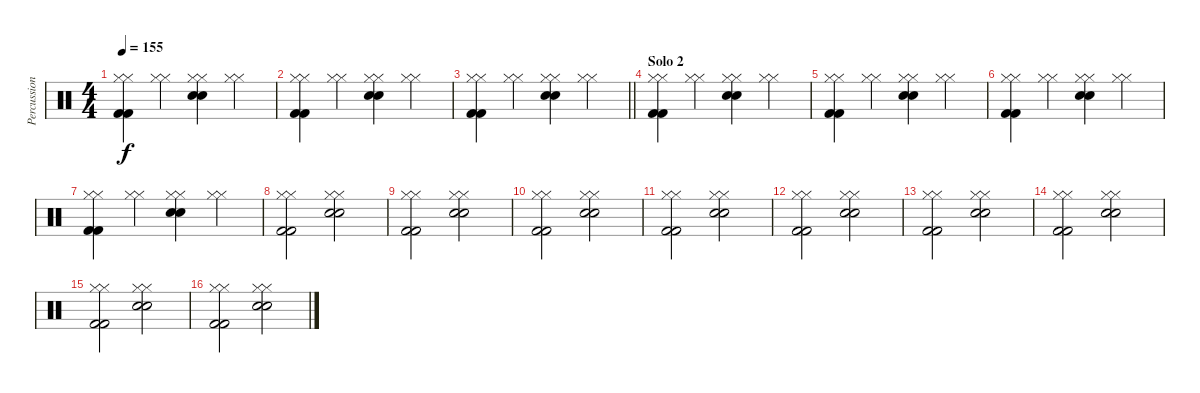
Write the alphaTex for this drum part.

\track ("Percussion" "Percussion") {instrument percussion}
\staff {score}
\articulation defaults
\ts (4 4)
\tempo 155
\clef neutral
\ks c
("Hi-Hat (closed)" "Hi-Hat (closed)" "Kick (hit) 2" "Kick (hit) 2").4{dy f} ("Hi-Hat (closed)" "Hi-Hat (closed)").4 ("Hi-Hat (closed)" "Hi-Hat (closed)" "Electric Snare (hit)" "Electric Snare (hit)").4 ("Hi-Hat (closed)" "Hi-Hat (closed)").4 |
("Hi-Hat (closed)" "Hi-Hat (closed)" "Kick (hit) 2" "Kick (hit) 2").4 ("Hi-Hat (closed)" "Hi-Hat (closed)").4 ("Hi-Hat (closed)" "Hi-Hat (closed)" "Electric Snare (hit)" "Electric Snare (hit)").4 ("Hi-Hat (closed)" "Hi-Hat (closed)").4 |
\barLineRight lightlight
("Hi-Hat (closed)" "Hi-Hat (closed)" "Kick (hit) 2" "Kick (hit) 2").4 ("Hi-Hat (closed)" "Hi-Hat (closed)").4 ("Hi-Hat (closed)" "Hi-Hat (closed)" "Electric Snare (hit)" "Electric Snare (hit)").4 ("Hi-Hat (closed)" "Hi-Hat (closed)").4 |
\section ("" "Solo 2")
("Hi-Hat (closed)" "Hi-Hat (closed)" "Kick (hit) 2" "Kick (hit) 2").4 ("Hi-Hat (closed)" "Hi-Hat (closed)").4 ("Hi-Hat (closed)" "Hi-Hat (closed)" "Electric Snare (hit)" "Electric Snare (hit)").4 ("Hi-Hat (closed)" "Hi-Hat (closed)").4 |
("Hi-Hat (closed)" "Hi-Hat (closed)" "Kick (hit) 2" "Kick (hit) 2").4 ("Hi-Hat (closed)" "Hi-Hat (closed)").4 ("Hi-Hat (closed)" "Hi-Hat (closed)" "Electric Snare (hit)" "Electric Snare (hit)").4 ("Hi-Hat (closed)" "Hi-Hat (closed)").4 |
("Hi-Hat (closed)" "Hi-Hat (closed)" "Kick (hit) 2" "Kick (hit) 2").4 ("Hi-Hat (closed)" "Hi-Hat (closed)").4 ("Hi-Hat (closed)" "Hi-Hat (closed)" "Electric Snare (hit)" "Electric Snare (hit)").4 ("Hi-Hat (closed)" "Hi-Hat (closed)").4 |
("Hi-Hat (closed)" "Hi-Hat (closed)" "Kick (hit) 2" "Kick (hit) 2").4 ("Hi-Hat (closed)" "Hi-Hat (closed)").4 ("Hi-Hat (closed)" "Hi-Hat (closed)" "Electric Snare (hit)" "Electric Snare (hit)").4 ("Hi-Hat (closed)" "Hi-Hat (closed)").4 |
("Hi-Hat (closed)" "Hi-Hat (closed)" "Kick (hit) 2" "Kick (hit) 2").2 ("Hi-Hat (closed)" "Hi-Hat (closed)" "Electric Snare (hit)" "Electric Snare (hit)").2 |
("Hi-Hat (closed)" "Hi-Hat (closed)" "Kick (hit) 2" "Kick (hit) 2").2 ("Hi-Hat (closed)" "Hi-Hat (closed)" "Electric Snare (hit)" "Electric Snare (hit)").2 |
("Hi-Hat (closed)" "Hi-Hat (closed)" "Kick (hit) 2" "Kick (hit) 2").2 ("Hi-Hat (closed)" "Hi-Hat (closed)" "Electric Snare (hit)" "Electric Snare (hit)").2 |
("Hi-Hat (closed)" "Hi-Hat (closed)" "Kick (hit) 2" "Kick (hit) 2").2 ("Hi-Hat (closed)" "Hi-Hat (closed)" "Electric Snare (hit)" "Electric Snare (hit)").2 |
("Hi-Hat (closed)" "Hi-Hat (closed)" "Kick (hit) 2" "Kick (hit) 2").2 ("Hi-Hat (closed)" "Hi-Hat (closed)" "Electric Snare (hit)" "Electric Snare (hit)").2 |
("Hi-Hat (closed)" "Hi-Hat (closed)" "Kick (hit) 2" "Kick (hit) 2").2 ("Hi-Hat (closed)" "Hi-Hat (closed)" "Electric Snare (hit)" "Electric Snare (hit)").2 |
("Hi-Hat (closed)" "Hi-Hat (closed)" "Kick (hit) 2" "Kick (hit) 2").2 ("Hi-Hat (closed)" "Hi-Hat (closed)" "Electric Snare (hit)" "Electric Snare (hit)").2 |
("Hi-Hat (closed)" "Hi-Hat (closed)" "Kick (hit) 2" "Kick (hit) 2").2 ("Hi-Hat (closed)" "Hi-Hat (closed)" "Electric Snare (hit)" "Electric Snare (hit)").2 |
("Hi-Hat (closed)" "Hi-Hat (closed)" "Kick (hit) 2" "Kick (hit) 2").2 ("Hi-Hat (closed)" "Hi-Hat (closed)" "Electric Snare (hit)" "Electric Snare (hit)").2
